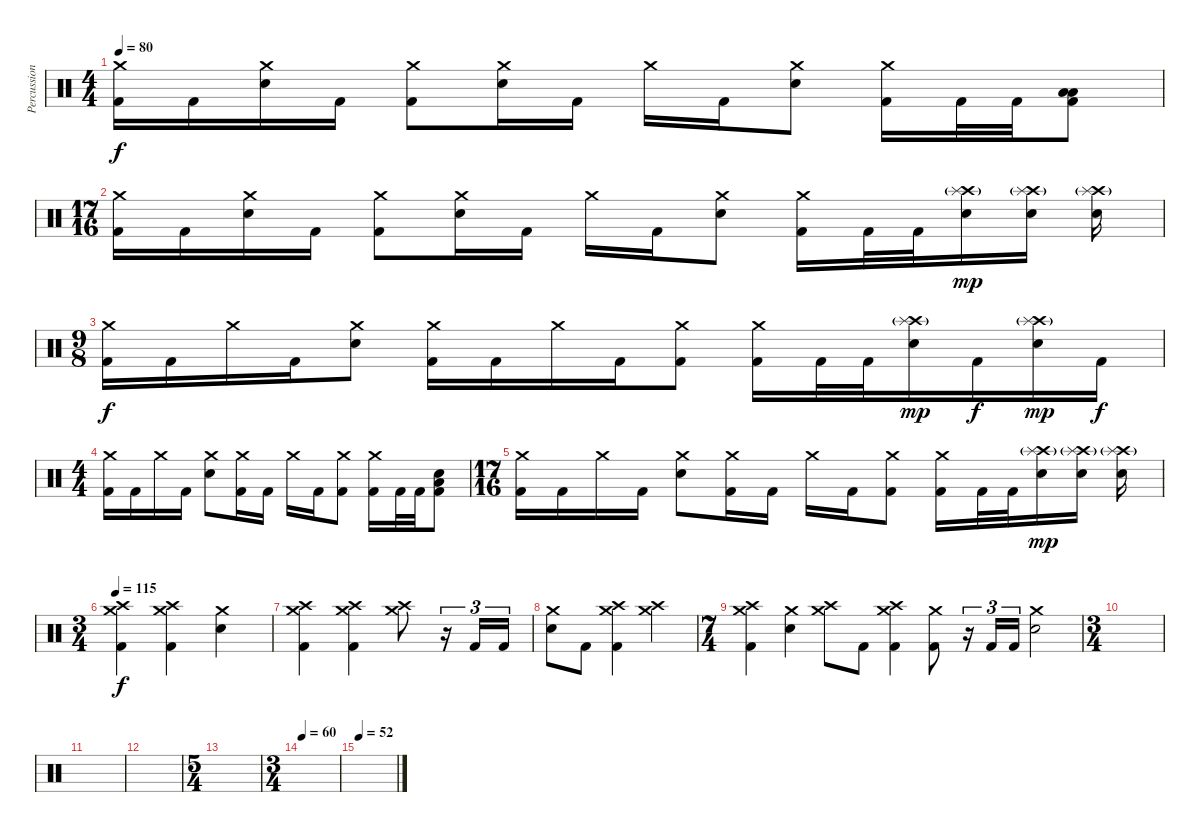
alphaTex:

\track ("Percussion" "Percussion") {instrument percussion}
\staff {score}
\articulation defaults
\ts (4 4)
\tempo 80
\clef neutral
\ks c
("Crash medium (hit)" "Kick (hit) 2").16{dy f} "Kick (hit) 2".16 ("Crash medium (hit)" "Electric Snare (hit)").16 "Kick (hit) 2".16 ("Crash medium (hit)" "Kick (hit) 2").8 ("Crash medium (hit)" "Electric Snare (hit)").16 "Kick (hit) 2".16 "Crash medium (hit)".16 "Kick (hit) 2".16 ("Crash medium (hit)" "Electric Snare (hit)").8 ("Crash medium (hit)" "Kick (hit) 2").16 "Kick (hit) 2".32 "Kick (hit) 2".32 ("Low Floor Tom (hit)" "Low Floor Tom (hit)" "Kick (hit) 2").8 |
\ts (17 16)
("Crash medium (hit)" "Kick (hit) 2").16 "Kick (hit) 2".16 ("Crash medium (hit)" "Electric Snare (hit)").16 "Kick (hit) 2".16 ("Crash medium (hit)" "Kick (hit) 2").8 ("Crash medium (hit)" "Electric Snare (hit)").16 "Kick (hit) 2".16 "Crash medium (hit)".16 "Kick (hit) 2".16 ("Crash medium (hit)" "Electric Snare (hit)").8 ("Crash medium (hit)" "Kick (hit) 2").16 "Kick (hit) 2".32 "Kick (hit) 2".32 ("Crash high (hit)"{g} "Splash (hit)" "Electric Snare (hit)").16{dy mp} ("Crash high (hit)"{g} "Splash (hit)" "Electric Snare (hit)").16 ("Crash high (hit)"{g} "Splash (hit)" "Electric Snare (hit)").16 |
\ts (9 8)
("Crash medium (hit)" "Kick (hit) 2").16{dy f} "Kick (hit) 2".16 "Crash medium (hit)".16 "Kick (hit) 2".16 ("Crash medium (hit)" "Electric Snare (hit)").8 ("Crash medium (hit)" "Kick (hit) 2").16 "Kick (hit) 2".16 "Crash medium (hit)".16 "Kick (hit) 2".16 ("Crash medium (hit)" "Kick (hit) 2").8 ("Crash medium (hit)" "Kick (hit) 2").16 "Kick (hit) 2".32 "Kick (hit) 2".32 ("Crash high (hit)"{g} "Splash (hit)" "Electric Snare (hit)").16{dy mp} "Kick (hit) 2".16{dy f} ("Crash high (hit)"{g} "Splash (hit)" "Electric Snare (hit)").16{dy mp} "Kick (hit) 2".16{dy f} |
\ts (4 4)
("Crash medium (hit)" "Kick (hit) 2").16 "Kick (hit) 2".16 "Crash medium (hit)".16 "Kick (hit) 2".16 ("Crash medium (hit)" "Electric Snare (hit)").8 ("Crash medium (hit)" "Kick (hit) 2").16 "Kick (hit) 2".16 "Crash medium (hit)".16 "Kick (hit) 2".16 ("Crash medium (hit)" "Kick (hit) 2").8 ("Crash medium (hit)" "Kick (hit) 2").16 "Kick (hit) 2".32 "Kick (hit) 2".32 ("Low Floor Tom (hit)" "Electric Snare (hit)" "Kick (hit) 2").8 |
\ts (17 16)
("Crash medium (hit)" "Kick (hit) 2").16 "Kick (hit) 2".16 "Crash medium (hit)".16 "Kick (hit) 2".16 ("Crash medium (hit)" "Electric Snare (hit)").8 ("Crash medium (hit)" "Kick (hit) 2").16 "Kick (hit) 2".16 "Crash medium (hit)".16 "Kick (hit) 2".16 ("Crash medium (hit)" "Kick (hit) 2").8 ("Crash medium (hit)" "Kick (hit) 2").16 "Kick (hit) 2".32 "Kick (hit) 2".32 ("Crash high (hit)"{g} "Splash (hit)" "Electric Snare (hit)").16{dy mp} ("Crash high (hit)"{g} "Splash (hit)" "Electric Snare (hit)").16 ("Crash high (hit)"{g} "Splash (hit)" "Electric Snare (hit)").16 |
\ts (3 4)
\tempo 115
("Crash medium (hit)" "Crash high (hit)" "Kick (hit) 2").4{dy f} ("Crash medium (hit)" "Crash high (hit)" "Kick (hit) 2").4 ("Crash medium (hit)" "Electric Snare (hit)").4 |
("Crash medium (hit)" "Crash high (hit)" "Kick (hit) 2").4 ("Crash medium (hit)" "Crash high (hit)" "Kick (hit) 2").4 ("Crash medium (hit)" "Crash high (hit)").8 r.16{tu (3 2)} "Kick (hit) 2".16{tu (3 2)} "Kick (hit) 2".16{tu (3 2)} |
("Crash medium (hit)" "Electric Snare (hit)").8 "Kick (hit) 2".8 ("Crash medium (hit)" "Crash high (hit)" "Kick (hit) 2").4 ("Crash medium (hit)" "Crash high (hit)").4 |
\ts (7 4)
("Crash medium (hit)" "Crash high (hit)" "Kick (hit) 2").4 ("Crash medium (hit)" "Electric Snare (hit)").4 ("Crash medium (hit)" "Crash high (hit)").8 "Kick (hit) 2".8 ("Crash medium (hit)" "Crash high (hit)" "Kick (hit) 2").4 ("Crash medium (hit)" "Kick (hit) 2").8 r.16{tu (3 2)} "Kick (hit) 2".16{tu (3 2)} "Kick (hit) 2".16{tu (3 2)} ("Crash medium (hit)" "Electric Snare (hit)").2 |
\ts (3 4)
|
|
|
\ts (5 4)
|
\ts (3 4)
\tempo 60
|
\tempo 52
